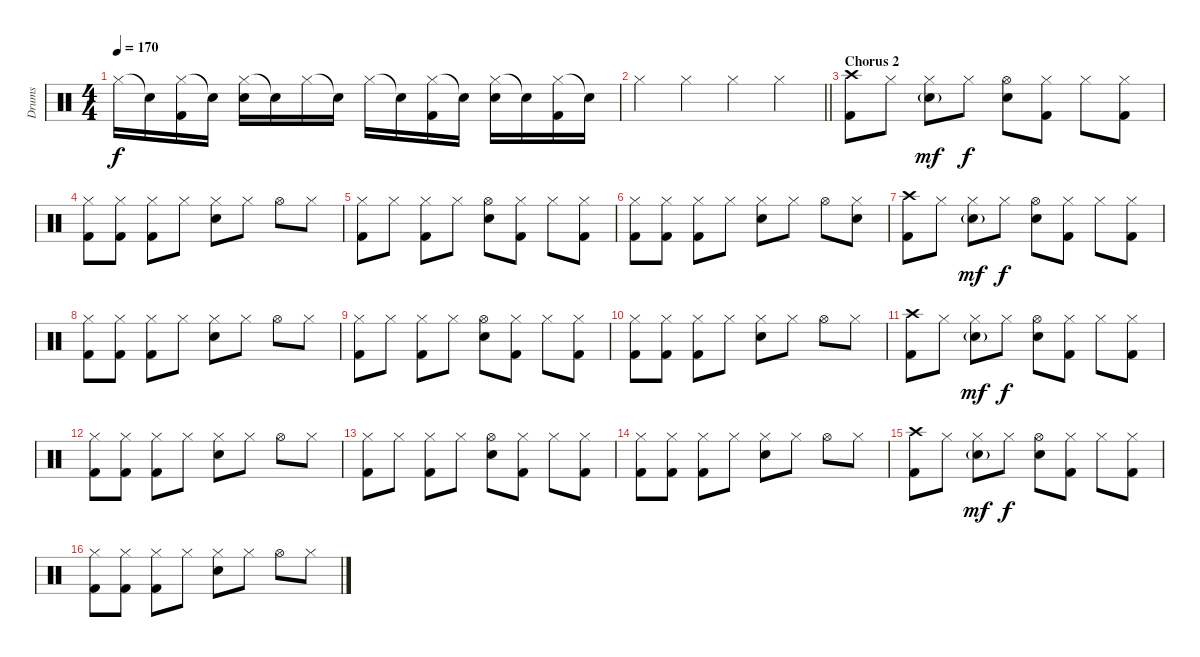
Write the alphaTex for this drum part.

\track ("Drums" "Drums") {instrument percussion}
\staff {score}
\articulation defaults
\ts (4 4)
\tempo 170
\clef neutral
\ks c "Hi-Hat (closed)".16{dy f} "Snare (hit)"{t}.16
("Hi-Hat (closed)" "Kick (hit) 2").16 "Snare (hit)"{t}.16 ("Hi-Hat (closed)" "Snare (hit) 2").16 "Snare (hit)"{t}.16 "Hi-Hat (closed)".16 "Snare (hit)"{t}.16 "Hi-Hat (closed)".16 "Snare (hit)"{t}.16 ("Hi-Hat (closed)" "Kick (hit) 2").16 "Snare (hit)"{t}.16 ("Hi-Hat (closed)" "Snare (hit) 2").16 "Snare (hit)"{t}.16 ("Hi-Hat (closed)" "Kick (hit) 2").16 "Snare (hit)"{t}.16 |
\barLineRight lightlight "Hi-Hat (closed)".4 "Hi-Hat (closed)".4 "Hi-Hat (closed)".4 "Hi-Hat (closed)".4
|
\section ("" "Chorus 2")
("Crash high (hit)" "Kick (hit) 2").8 "Hi-Hat (closed)".8 ("Hi-Hat (closed)" "Snare (hit) 2"{g}).8{dy mf} "Hi-Hat (closed)".8{dy f} ("Hi-Hat (open)" "Snare (hit) 2").8 ("Hi-Hat (closed)" "Kick (hit) 2").8 "Hi-Hat (closed)".8 ("Hi-Hat (closed)" "Kick (hit) 2").8 |
("Hi-Hat (closed)" "Kick (hit) 2").8 ("Hi-Hat (closed)" "Kick (hit) 2").8 ("Hi-Hat (closed)" "Kick (hit) 2").8 "Hi-Hat (closed)".8 ("Hi-Hat (closed)" "Snare (hit) 2").8 "Hi-Hat (closed)".8 "Hi-Hat (open)".8 "Hi-Hat (closed)".8 |
("Hi-Hat (closed)" "Kick (hit) 2").8 "Hi-Hat (closed)".8 ("Hi-Hat (closed)" "Kick (hit) 2").8 "Hi-Hat (closed)".8 ("Hi-Hat (open)" "Snare (hit) 2").8 ("Hi-Hat (closed)" "Kick (hit) 2").8 "Hi-Hat (closed)".8 ("Hi-Hat (closed)" "Kick (hit) 2").8 |
("Hi-Hat (closed)" "Kick (hit) 2").8 ("Hi-Hat (closed)" "Kick (hit) 2").8 ("Hi-Hat (closed)" "Kick (hit) 2").8 "Hi-Hat (closed)".8 ("Hi-Hat (closed)" "Snare (hit) 2").8 "Hi-Hat (closed)".8 "Hi-Hat (open)".8 ("Hi-Hat (closed)" "Snare (hit) 2").8 |
("Crash high (hit)" "Kick (hit) 2").8 "Hi-Hat (closed)".8 ("Hi-Hat (closed)" "Snare (hit) 2"{g}).8{dy mf} "Hi-Hat (closed)".8{dy f} ("Hi-Hat (open)" "Snare (hit) 2").8 ("Hi-Hat (closed)" "Kick (hit) 2").8 "Hi-Hat (closed)".8 ("Hi-Hat (closed)" "Kick (hit) 2").8 |
("Hi-Hat (closed)" "Kick (hit) 2").8 ("Hi-Hat (closed)" "Kick (hit) 2").8 ("Hi-Hat (closed)" "Kick (hit) 2").8 "Hi-Hat (closed)".8 ("Hi-Hat (closed)" "Snare (hit) 2").8 "Hi-Hat (closed)".8 "Hi-Hat (open)".8 "Hi-Hat (closed)".8 |
("Hi-Hat (closed)" "Kick (hit) 2").8 "Hi-Hat (closed)".8 ("Hi-Hat (closed)" "Kick (hit) 2").8 "Hi-Hat (closed)".8 ("Hi-Hat (open)" "Snare (hit) 2").8 ("Hi-Hat (closed)" "Kick (hit) 2").8 "Hi-Hat (closed)".8 ("Hi-Hat (closed)" "Kick (hit) 2").8 |
("Hi-Hat (closed)" "Kick (hit) 2").8 ("Hi-Hat (closed)" "Kick (hit) 2").8 ("Hi-Hat (closed)" "Kick (hit) 2").8 "Hi-Hat (closed)".8 ("Hi-Hat (closed)" "Snare (hit) 2").8 "Hi-Hat (closed)".8 "Hi-Hat (open)".8 "Hi-Hat (closed)".8 |
("Crash high (hit)" "Kick (hit) 2").8 "Hi-Hat (closed)".8 ("Hi-Hat (closed)" "Snare (hit) 2"{g}).8{dy mf} "Hi-Hat (closed)".8{dy f} ("Hi-Hat (open)" "Snare (hit) 2").8 ("Hi-Hat (closed)" "Kick (hit) 2").8 "Hi-Hat (closed)".8 ("Hi-Hat (closed)" "Kick (hit) 2").8 |
("Hi-Hat (closed)" "Kick (hit) 2").8 ("Hi-Hat (closed)" "Kick (hit) 2").8 ("Hi-Hat (closed)" "Kick (hit) 2").8 "Hi-Hat (closed)".8 ("Hi-Hat (closed)" "Snare (hit) 2").8 "Hi-Hat (closed)".8 "Hi-Hat (open)".8 "Hi-Hat (closed)".8 |
("Hi-Hat (closed)" "Kick (hit) 2").8 "Hi-Hat (closed)".8 ("Hi-Hat (closed)" "Kick (hit) 2").8 "Hi-Hat (closed)".8 ("Hi-Hat (open)" "Snare (hit) 2").8 ("Hi-Hat (closed)" "Kick (hit) 2").8 "Hi-Hat (closed)".8 ("Hi-Hat (closed)" "Kick (hit) 2").8 |
("Hi-Hat (closed)" "Kick (hit) 2").8 ("Hi-Hat (closed)" "Kick (hit) 2").8 ("Hi-Hat (closed)" "Kick (hit) 2").8 "Hi-Hat (closed)".8 ("Hi-Hat (closed)" "Snare (hit) 2").8 "Hi-Hat (closed)".8 "Hi-Hat (open)".8 "Hi-Hat (closed)".8 |
("Crash high (hit)" "Kick (hit) 2").8 "Hi-Hat (closed)".8 ("Hi-Hat (closed)" "Snare (hit) 2"{g}).8{dy mf} "Hi-Hat (closed)".8{dy f} ("Hi-Hat (open)" "Snare (hit) 2").8 ("Hi-Hat (closed)" "Kick (hit) 2").8 "Hi-Hat (closed)".8 ("Hi-Hat (closed)" "Kick (hit) 2").8 |
("Hi-Hat (closed)" "Kick (hit) 2").8 ("Hi-Hat (closed)" "Kick (hit) 2").8 ("Hi-Hat (closed)" "Kick (hit) 2").8 "Hi-Hat (closed)".8 ("Hi-Hat (closed)" "Snare (hit) 2").8 "Hi-Hat (closed)".8 "Hi-Hat (open)".8 "Hi-Hat (closed)".8
